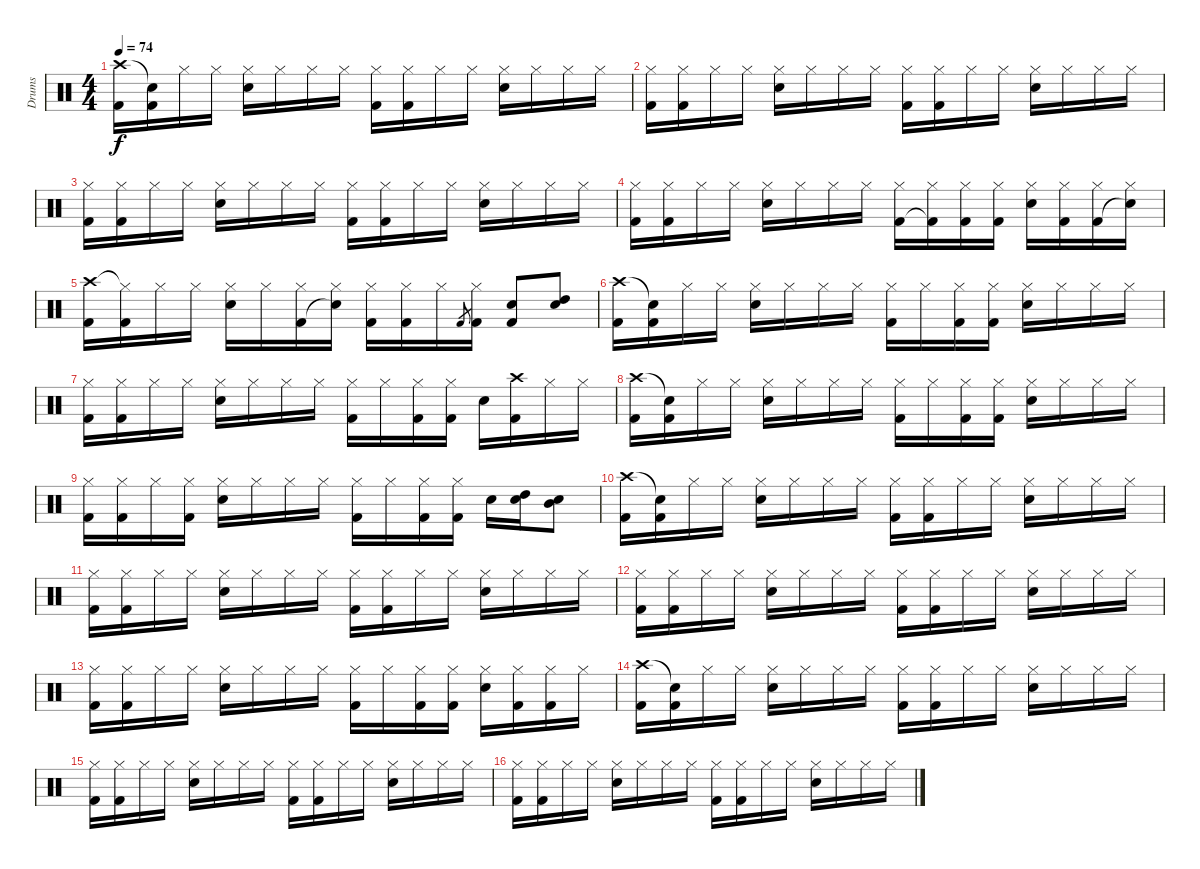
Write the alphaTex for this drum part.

\track ("Drums" "Drums") {instrument percussion}
\staff {score}
\articulation defaults
\ts (4 4)
\tempo 74
\clef neutral
\ks c
("Crash high (hit)" "Kick (hit) 2").16{dy f} ("Snare (hit)"{t} "Kick (hit) 2").16 "Hi-Hat (closed)".16 "Hi-Hat (closed)".16 ("Hi-Hat (closed)" "Electric Snare (hit)").16 "Hi-Hat (closed)".16 "Hi-Hat (closed)".16 "Hi-Hat (closed)".16 ("Hi-Hat (closed)" "Kick (hit) 2").16 ("Hi-Hat (closed)" "Kick (hit) 2").16 "Hi-Hat (closed)".16 "Hi-Hat (closed)".16 ("Hi-Hat (closed)" "Electric Snare (hit)").16 "Hi-Hat (closed)".16 "Hi-Hat (closed)".16 "Hi-Hat (closed)".16 |
("Hi-Hat (closed)" "Kick (hit) 2").16 ("Hi-Hat (closed)" "Kick (hit) 2").16 "Hi-Hat (closed)".16 "Hi-Hat (closed)".16 ("Hi-Hat (closed)" "Electric Snare (hit)").16 "Hi-Hat (closed)".16 "Hi-Hat (closed)".16 "Hi-Hat (closed)".16 ("Hi-Hat (closed)" "Kick (hit) 2").16 ("Hi-Hat (closed)" "Kick (hit) 2").16 "Hi-Hat (closed)".16 "Hi-Hat (closed)".16 ("Hi-Hat (closed)" "Electric Snare (hit)").16 "Hi-Hat (closed)".16 "Hi-Hat (closed)".16 "Hi-Hat (closed)".16 |
("Hi-Hat (closed)" "Kick (hit) 2").16 ("Hi-Hat (closed)" "Kick (hit) 2").16 "Hi-Hat (closed)".16 "Hi-Hat (closed)".16 ("Hi-Hat (closed)" "Electric Snare (hit)").16 "Hi-Hat (closed)".16 "Hi-Hat (closed)".16 "Hi-Hat (closed)".16 ("Hi-Hat (closed)" "Kick (hit) 2").16 ("Hi-Hat (closed)" "Kick (hit) 2").16 "Hi-Hat (closed)".16 "Hi-Hat (closed)".16 ("Hi-Hat (closed)" "Electric Snare (hit)").16 "Hi-Hat (closed)".16 "Hi-Hat (closed)".16 "Hi-Hat (closed)".16 |
("Hi-Hat (closed)" "Kick (hit) 2").16 ("Hi-Hat (closed)" "Kick (hit) 2").16 "Hi-Hat (closed)".16 "Hi-Hat (closed)".16 ("Hi-Hat (closed)" "Electric Snare (hit)").16 "Hi-Hat (closed)".16 "Hi-Hat (closed)".16 "Hi-Hat (closed)".16 ("Hi-Hat (closed)" "Kick (hit) 2").16 ("Hi-Hat (closed)" "Kick (hit) 2"{t}).16 ("Hi-Hat (closed)" "Kick (hit) 2").16 ("Hi-Hat (closed)" "Kick (hit) 2").16 ("Hi-Hat (closed)" "Electric Snare (hit)").16 ("Hi-Hat (closed)" "Kick (hit) 2").16 ("Hi-Hat (closed)" "Kick (hit) 2").16 ("Hi-Hat (closed)" "Snare (hit)"{t}).16 |
("Crash high (hit)" "Kick (hit) 2").16 ("Hi-Hat (closed)"{t} "Kick (hit) 2").16 "Hi-Hat (closed)".16 "Hi-Hat (closed)".16 ("Hi-Hat (closed)" "Electric Snare (hit)").16 "Hi-Hat (closed)".16 ("Hi-Hat (closed)" "Kick (hit) 2").16 ("Hi-Hat (closed)" "Snare (hit)"{t}).16 ("Hi-Hat (closed)" "Kick (hit) 2").16 ("Hi-Hat (closed)" "Kick (hit) 2").16 "Hi-Hat (closed)".16 "Kick (hit) 2".8{gr} ("Hi-Hat (closed)" "Kick (hit) 2").16 ("Electric Snare (hit)" "Kick (hit) 2").8 ("High Tom (hit)" "Electric Snare (hit)").8 |
("Crash high (hit)" "Kick (hit) 2").16 ("Snare (hit)"{t} "Kick (hit) 2").16 "Hi-Hat (closed)".16 "Hi-Hat (closed)".16 ("Hi-Hat (closed)" "Electric Snare (hit)").16 "Hi-Hat (closed)".16 "Hi-Hat (closed)".16 "Hi-Hat (closed)".16 ("Hi-Hat (closed)" "Kick (hit) 2").16 "Hi-Hat (closed)".16 ("Hi-Hat (closed)" "Kick (hit) 2").16 ("Hi-Hat (closed)" "Kick (hit) 2").16 ("Hi-Hat (closed)" "Electric Snare (hit)").16 "Hi-Hat (closed)".16 "Hi-Hat (closed)".16 "Hi-Hat (closed)".16 |
("Hi-Hat (closed)" "Kick (hit) 2").16 ("Hi-Hat (closed)" "Kick (hit) 2").16 "Hi-Hat (closed)".16 "Hi-Hat (closed)".16 ("Hi-Hat (closed)" "Electric Snare (hit)").16 "Hi-Hat (closed)".16 "Hi-Hat (closed)".16 "Hi-Hat (closed)".16 ("Hi-Hat (closed)" "Kick (hit) 2").16 "Hi-Hat (closed)".16 ("Hi-Hat (closed)" "Kick (hit) 2").16 ("Hi-Hat (closed)" "Kick (hit) 2").16 "Electric Snare (hit)".16 ("Crash high (hit)" "Kick (hit) 2").16 "Hi-Hat (closed)".16 "Hi-Hat (closed)".16 |
("Crash high (hit)" "Kick (hit) 2").16 ("Snare (hit)"{t} "Kick (hit) 2").16 "Hi-Hat (closed)".16 "Hi-Hat (closed)".16 ("Hi-Hat (closed)" "Electric Snare (hit)").16 "Hi-Hat (closed)".16 "Hi-Hat (closed)".16 "Hi-Hat (closed)".16 ("Hi-Hat (closed)" "Kick (hit) 2").16 "Hi-Hat (closed)".16 ("Hi-Hat (closed)" "Kick (hit) 2").16 ("Hi-Hat (closed)" "Kick (hit) 2").16 ("Hi-Hat (closed)" "Electric Snare (hit)").16 "Hi-Hat (closed)".16 "Hi-Hat (closed)".16 "Hi-Hat (closed)".16 |
("Hi-Hat (closed)" "Kick (hit) 2").16 ("Hi-Hat (closed)" "Kick (hit) 2").16 "Hi-Hat (closed)".16 ("Hi-Hat (closed)" "Kick (hit) 2").16 ("Hi-Hat (closed)" "Electric Snare (hit)").16 "Hi-Hat (closed)".16 "Hi-Hat (closed)".16 "Hi-Hat (closed)".16 ("Hi-Hat (closed)" "Kick (hit) 2").16 "Hi-Hat (closed)".16 ("Hi-Hat (closed)" "Kick (hit) 2").16 ("Hi-Hat (closed)" "Kick (hit) 2").16 "Electric Snare (hit)".16 ("High Tom (hit)" "Electric Snare (hit)").16 ("Mid Tom (hit)" "Electric Snare (hit)").8 |
("Crash high (hit)" "Kick (hit) 2").16 ("Snare (hit)"{t} "Kick (hit) 2").16 "Hi-Hat (closed)".16 "Hi-Hat (closed)".16 ("Hi-Hat (closed)" "Electric Snare (hit)").16 "Hi-Hat (closed)".16 "Hi-Hat (closed)".16 "Hi-Hat (closed)".16 ("Hi-Hat (closed)" "Kick (hit) 2").16 ("Hi-Hat (closed)" "Kick (hit) 2").16 "Hi-Hat (closed)".16 "Hi-Hat (closed)".16 ("Hi-Hat (closed)" "Electric Snare (hit)").16 "Hi-Hat (closed)".16 "Hi-Hat (closed)".16 "Hi-Hat (closed)".16 |
("Hi-Hat (closed)" "Kick (hit) 2").16 ("Hi-Hat (closed)" "Kick (hit) 2").16 "Hi-Hat (closed)".16 "Hi-Hat (closed)".16 ("Hi-Hat (closed)" "Electric Snare (hit)").16 "Hi-Hat (closed)".16 "Hi-Hat (closed)".16 "Hi-Hat (closed)".16 ("Hi-Hat (closed)" "Kick (hit) 2").16 ("Hi-Hat (closed)" "Kick (hit) 2").16 "Hi-Hat (closed)".16 "Hi-Hat (closed)".16 ("Hi-Hat (closed)" "Electric Snare (hit)").16 "Hi-Hat (closed)".16 "Hi-Hat (closed)".16 "Hi-Hat (closed)".16 |
("Hi-Hat (closed)" "Kick (hit) 2").16 ("Hi-Hat (closed)" "Kick (hit) 2").16 "Hi-Hat (closed)".16 "Hi-Hat (closed)".16 ("Hi-Hat (closed)" "Electric Snare (hit)").16 "Hi-Hat (closed)".16 "Hi-Hat (closed)".16 "Hi-Hat (closed)".16 ("Hi-Hat (closed)" "Kick (hit) 2").16 ("Hi-Hat (closed)" "Kick (hit) 2").16 "Hi-Hat (closed)".16 "Hi-Hat (closed)".16 ("Hi-Hat (closed)" "Electric Snare (hit)").16 "Hi-Hat (closed)".16 "Hi-Hat (closed)".16 "Hi-Hat (closed)".16 |
("Hi-Hat (closed)" "Kick (hit) 2").16 ("Hi-Hat (closed)" "Kick (hit) 2").16 "Hi-Hat (closed)".16 "Hi-Hat (closed)".16 ("Hi-Hat (closed)" "Electric Snare (hit)").16 "Hi-Hat (closed)".16 "Hi-Hat (closed)".16 "Hi-Hat (closed)".16 ("Hi-Hat (closed)" "Kick (hit) 2").16 "Hi-Hat (closed)".16 ("Hi-Hat (closed)" "Kick (hit) 2").16 ("Hi-Hat (closed)" "Kick (hit) 2").16 ("Hi-Hat (closed)" "Electric Snare (hit)").16 ("Hi-Hat (closed)" "Kick (hit) 2").16 ("Hi-Hat (closed)" "Kick (hit) 2").16 "Hi-Hat (closed)".16 |
("Crash high (hit)" "Kick (hit) 2").16 ("Snare (hit)"{t} "Kick (hit) 2").16 "Hi-Hat (closed)".16 "Hi-Hat (closed)".16 ("Hi-Hat (closed)" "Electric Snare (hit)").16 "Hi-Hat (closed)".16 "Hi-Hat (closed)".16 "Hi-Hat (closed)".16 ("Hi-Hat (closed)" "Kick (hit) 2").16 ("Hi-Hat (closed)" "Kick (hit) 2").16 "Hi-Hat (closed)".16 "Hi-Hat (closed)".16 ("Hi-Hat (closed)" "Electric Snare (hit)").16 "Hi-Hat (closed)".16 "Hi-Hat (closed)".16 "Hi-Hat (closed)".16 |
("Hi-Hat (closed)" "Kick (hit) 2").16 ("Hi-Hat (closed)" "Kick (hit) 2").16 "Hi-Hat (closed)".16 "Hi-Hat (closed)".16 ("Hi-Hat (closed)" "Electric Snare (hit)").16 "Hi-Hat (closed)".16 "Hi-Hat (closed)".16 "Hi-Hat (closed)".16 ("Hi-Hat (closed)" "Kick (hit) 2").16 ("Hi-Hat (closed)" "Kick (hit) 2").16 "Hi-Hat (closed)".16 "Hi-Hat (closed)".16 ("Hi-Hat (closed)" "Electric Snare (hit)").16 "Hi-Hat (closed)".16 "Hi-Hat (closed)".16 "Hi-Hat (closed)".16 |
("Hi-Hat (closed)" "Kick (hit) 2").16 ("Hi-Hat (closed)" "Kick (hit) 2").16 "Hi-Hat (closed)".16 "Hi-Hat (closed)".16 ("Hi-Hat (closed)" "Electric Snare (hit)").16 "Hi-Hat (closed)".16 "Hi-Hat (closed)".16 "Hi-Hat (closed)".16 ("Hi-Hat (closed)" "Kick (hit) 2").16 ("Hi-Hat (closed)" "Kick (hit) 2").16 "Hi-Hat (closed)".16 "Hi-Hat (closed)".16 ("Hi-Hat (closed)" "Electric Snare (hit)").16 "Hi-Hat (closed)".16 "Hi-Hat (closed)".16 "Hi-Hat (closed)".16
